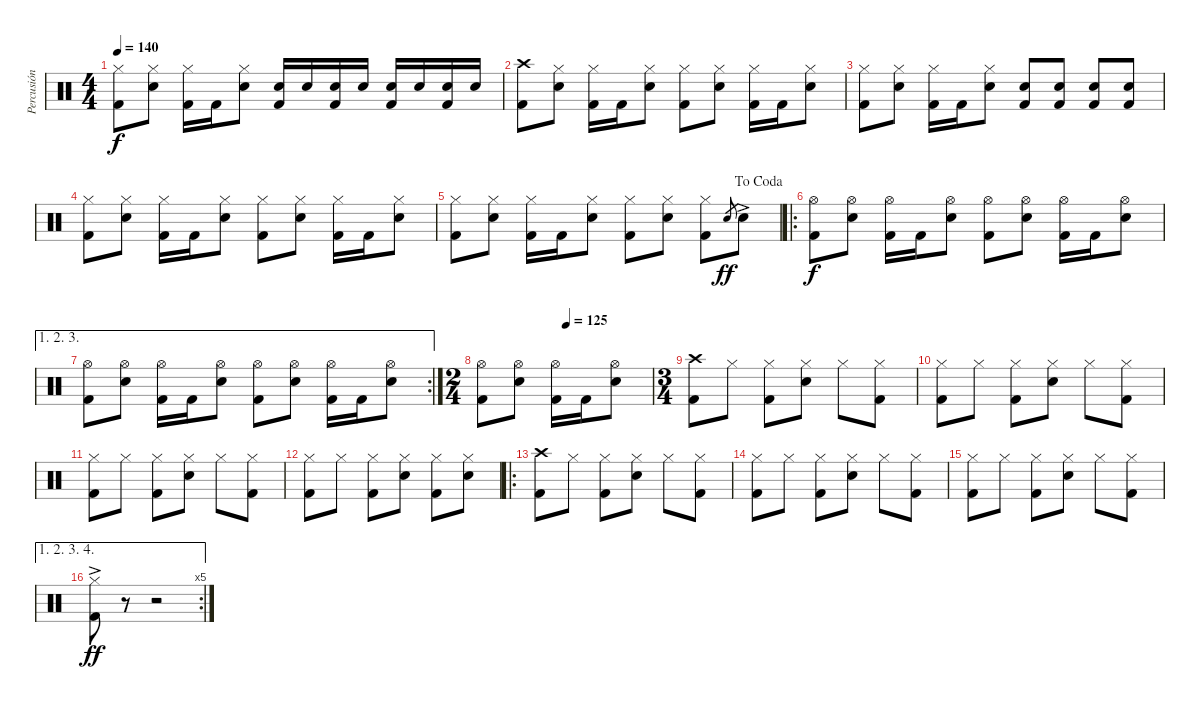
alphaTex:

\track ("Percusión" "Percusión") {instrument percussion}
\staff {score}
\articulation defaults
\ts (4 4)
\tempo 140
\clef neutral
\ks c
("Hi-Hat (closed)" "Kick (hit) 2").8{dy f} ("Hi-Hat (closed)" "Snare (hit) 2").8 ("Hi-Hat (closed)" "Kick (hit) 2").16 "Kick (hit) 2".16 ("Hi-Hat (closed)" "Snare (hit) 2").8 ("Snare (hit) 2" "Kick (hit) 2").16 "Snare (hit) 2".16 ("Snare (hit) 2" "Kick (hit) 2").16 "Snare (hit) 2".16 ("Snare (hit) 2" "Kick (hit) 2").16 "Snare (hit) 2".16 ("Snare (hit) 2" "Kick (hit) 2").16 "Snare (hit) 2".16 |
("Crash high (hit)" "Kick (hit) 2").8 ("Hi-Hat (closed)" "Snare (hit) 2").8 ("Hi-Hat (closed)" "Kick (hit) 2").16 "Kick (hit) 2".16 ("Hi-Hat (closed)" "Snare (hit) 2").8 ("Hi-Hat (closed)" "Kick (hit) 2").8 ("Hi-Hat (closed)" "Snare (hit) 2").8 ("Hi-Hat (closed)" "Kick (hit) 2").16 "Kick (hit) 2".16 ("Hi-Hat (closed)" "Snare (hit) 2").8 |
("Hi-Hat (closed)" "Kick (hit) 2").8 ("Hi-Hat (closed)" "Snare (hit) 2").8 ("Hi-Hat (closed)" "Kick (hit) 2").16 "Kick (hit) 2".16 ("Hi-Hat (closed)" "Snare (hit) 2").8 ("Snare (hit) 2" "Kick (hit) 2").8 ("Snare (hit) 2" "Kick (hit) 2").8 ("Snare (hit) 2" "Kick (hit) 2").8 ("Snare (hit) 2" "Kick (hit) 2").8 |
("Hi-Hat (closed)" "Kick (hit) 2").8 ("Hi-Hat (closed)" "Snare (hit) 2").8 ("Hi-Hat (closed)" "Kick (hit) 2").16 "Kick (hit) 2".16 ("Hi-Hat (closed)" "Snare (hit) 2").8 ("Hi-Hat (closed)" "Kick (hit) 2").8 ("Hi-Hat (closed)" "Snare (hit) 2").8 ("Hi-Hat (closed)" "Kick (hit) 2").16 "Kick (hit) 2".16 ("Hi-Hat (closed)" "Snare (hit) 2").8 |
\jump dacoda
("Hi-Hat (closed)" "Kick (hit) 2").8 ("Hi-Hat (closed)" "Snare (hit) 2").8 ("Hi-Hat (closed)" "Kick (hit) 2").16 "Kick (hit) 2".16 ("Hi-Hat (closed)" "Snare (hit) 2").8 ("Hi-Hat (closed)" "Kick (hit) 2").8 ("Hi-Hat (closed)" "Snare (hit) 2").8 ("Hi-Hat (closed)" "Kick (hit) 2").8 "Snare (hit) 2".8{gr dy ff} "Snare (hit) 2"{ac}.8 |
\ro
("Hi-Hat (open)" "Kick (hit) 2").8{dy f} ("Hi-Hat (open)" "Snare (hit) 2").8 ("Hi-Hat (open)" "Kick (hit) 2").16 "Kick (hit) 2".16 ("Hi-Hat (open)" "Snare (hit) 2").8 ("Hi-Hat (open)" "Kick (hit) 2").8 ("Hi-Hat (open)" "Snare (hit) 2").8 ("Hi-Hat (open)" "Kick (hit) 2").16 "Kick (hit) 2".16 ("Hi-Hat (open)" "Snare (hit) 2").8 |
\ae (1 2 3)
\rc 2
("Hi-Hat (open)" "Kick (hit) 2").8 ("Hi-Hat (open)" "Snare (hit) 2").8 ("Hi-Hat (open)" "Kick (hit) 2").16 "Kick (hit) 2".16 ("Hi-Hat (open)" "Snare (hit) 2").8 ("Hi-Hat (open)" "Kick (hit) 2").8 ("Hi-Hat (open)" "Snare (hit) 2").8 ("Hi-Hat (open)" "Kick (hit) 2").16 "Kick (hit) 2".16 ("Hi-Hat (open)" "Snare (hit) 2").8 |
\ts (2 4)
\tempo (125 0.5)
("Hi-Hat (open)" "Kick (hit) 2").8 ("Hi-Hat (open)" "Snare (hit) 2").8 ("Hi-Hat (open)" "Kick (hit) 2").16 "Kick (hit) 2".16 ("Hi-Hat (open)" "Snare (hit) 2").8 |
\ts (3 4)
("Crash high (hit)" "Kick (hit) 2").8 "Hi-Hat (closed)".8 ("Hi-Hat (closed)" "Kick (hit) 2").8 ("Hi-Hat (closed)" "Snare (hit) 2").8 "Hi-Hat (closed)".8 ("Hi-Hat (closed)" "Kick (hit) 2").8 |
("Hi-Hat (closed)" "Kick (hit) 2").8 "Hi-Hat (closed)".8 ("Hi-Hat (closed)" "Kick (hit) 2").8 ("Hi-Hat (closed)" "Snare (hit) 2").8 "Hi-Hat (closed)".8 ("Hi-Hat (closed)" "Kick (hit) 2").8 |
("Hi-Hat (closed)" "Kick (hit) 2").8 "Hi-Hat (closed)".8 ("Hi-Hat (closed)" "Kick (hit) 2").8 ("Hi-Hat (closed)" "Snare (hit) 2").8 "Hi-Hat (closed)".8 ("Hi-Hat (closed)" "Kick (hit) 2").8 |
("Hi-Hat (closed)" "Kick (hit) 2").8 "Hi-Hat (closed)".8 ("Hi-Hat (closed)" "Kick (hit) 2").8 ("Hi-Hat (closed)" "Snare (hit) 2").8 ("Hi-Hat (closed)" "Kick (hit) 2").8 ("Hi-Hat (closed)" "Snare (hit) 2").8 |
\ro
("Crash high (hit)" "Kick (hit) 2").8 "Hi-Hat (closed)".8 ("Hi-Hat (closed)" "Kick (hit) 2").8 ("Hi-Hat (closed)" "Snare (hit) 2").8 "Hi-Hat (closed)".8 ("Hi-Hat (closed)" "Kick (hit) 2").8 |
("Hi-Hat (closed)" "Kick (hit) 2").8 "Hi-Hat (closed)".8 ("Hi-Hat (closed)" "Kick (hit) 2").8 ("Hi-Hat (closed)" "Snare (hit) 2").8 "Hi-Hat (closed)".8 ("Hi-Hat (closed)" "Kick (hit) 2").8 |
("Hi-Hat (closed)" "Kick (hit) 2").8 "Hi-Hat (closed)".8 ("Hi-Hat (closed)" "Kick (hit) 2").8 ("Hi-Hat (closed)" "Snare (hit) 2").8 "Hi-Hat (closed)".8 ("Hi-Hat (closed)" "Kick (hit) 2").8 |
\ae (1 2 3 4)
\rc 5
("Hi-Hat (closed)"{ac} "Kick (hit) 2"{ac}).8{dy ff} r.8 r.2
